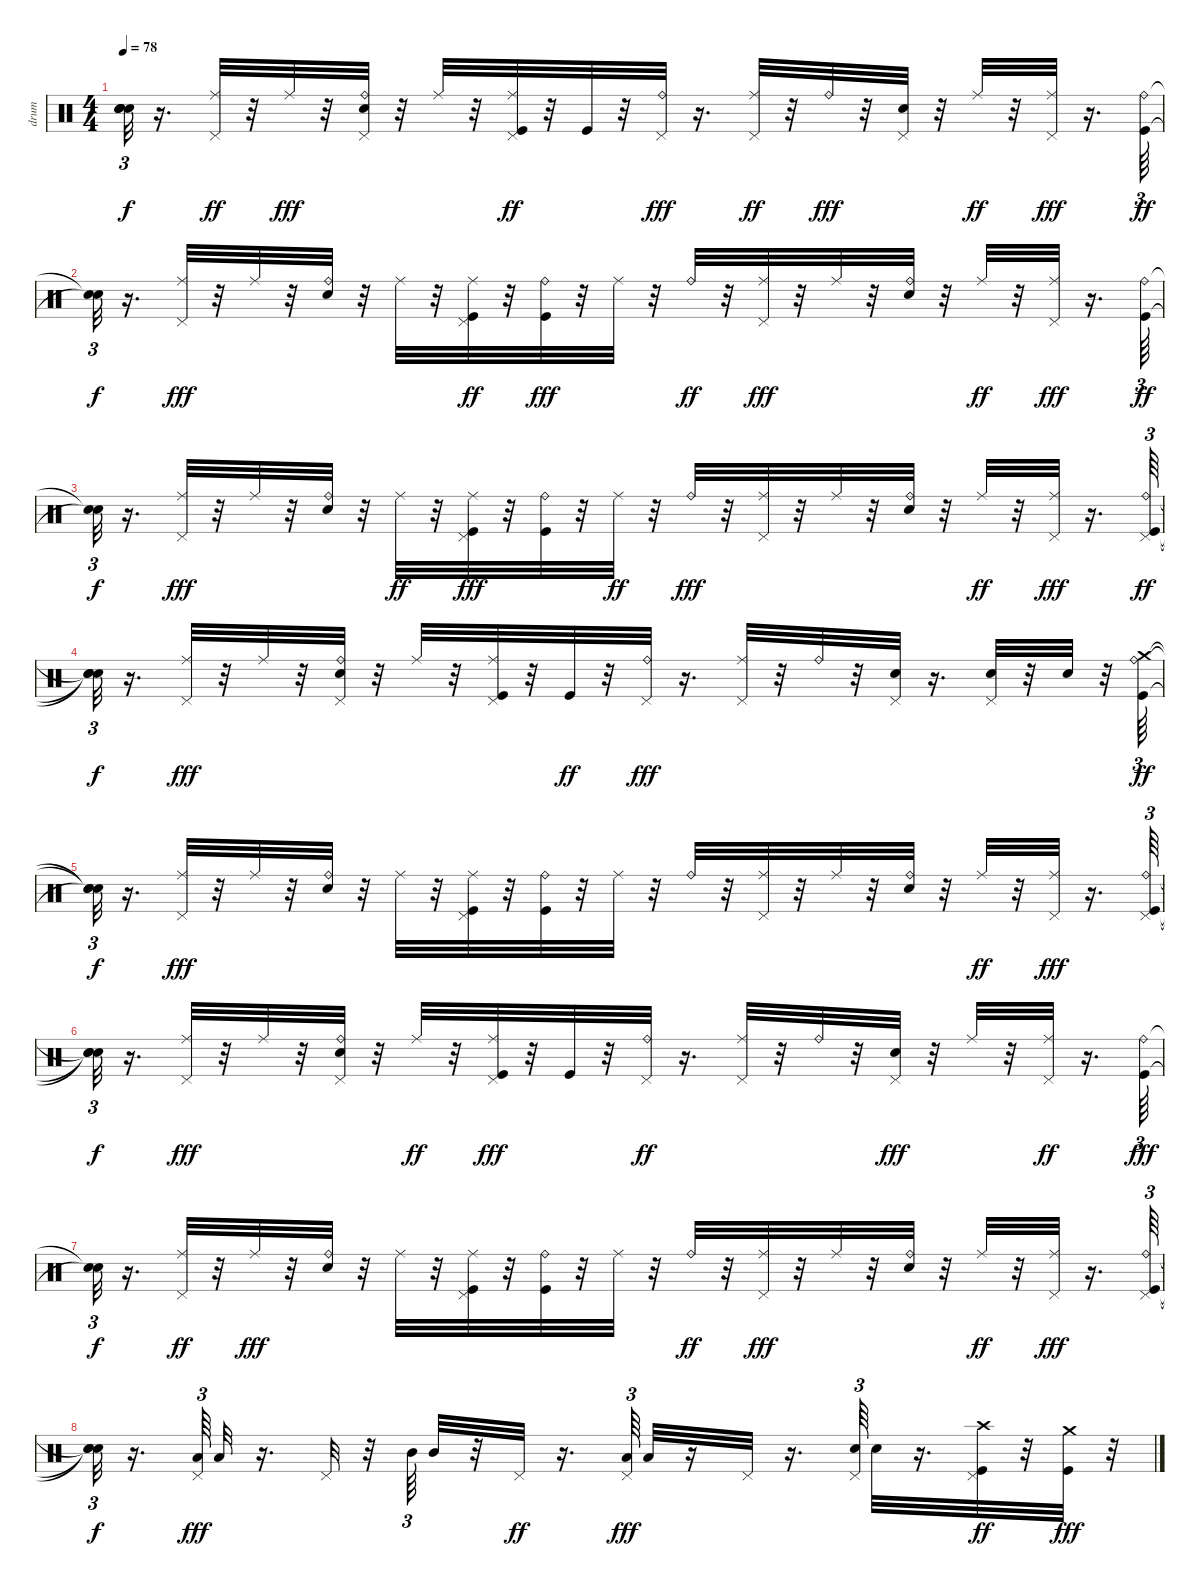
\track ("drum" "drum") {instrument percussion}
\staff {score}
\articulation defaults
\ts (4 4)
\tempo 78
\clef neutral
\ks c
("Snare (hit)"{t} "Snare (hit)"{t} "Snare (hit)"{t} "Snare (hit)"{t}).32{tu (3 2) dy f} r.16{d} ("Ride (middle)" "Pedal Hi-Hat (hit)").32{dy ff} r.32 "Ride (middle)".32{dy fff} r.32 ("Ride (bell)" "Pedal Hi-Hat (hit)" "Electric Snare (hit)").32 r.32 "Ride (middle)".32 r.32 ("Ride (middle)" "Pedal Hi-Hat (hit)" "Kick (hit)").32{dy ff} r.32 "Kick (hit)".32 r.32 ("Ride (bell)" "Pedal Hi-Hat (hit)").32{dy fff} r.16{d} ("Ride (middle)" "Pedal Hi-Hat (hit)").32{dy ff} r.32 "Ride (bell)".32{dy fff} r.32 ("Pedal Hi-Hat (hit)" "Electric Snare (hit)").32 r.32 "Ride (middle)".32{dy ff} r.32 ("Ride (middle)" "Pedal Hi-Hat (hit)").32{dy fff} r.16{d} ("Ride (bell)" "Kick (hit)").64{tu (3 2) dy ff} |
("Snare (hit)"{t} "Snare (hit)"{t}).32{tu (3 2) dy f} r.16{d} ("Ride (middle)" "Pedal Hi-Hat (hit)").32{dy fff} r.32 "Ride (middle)".32 r.32 ("Ride (bell)" "Electric Snare (hit)").32 r.32 "Ride (middle)".32 r.32 ("Ride (middle)" "Pedal Hi-Hat (hit)" "Kick (hit)").32{dy ff} r.32 ("Ride (bell)" "Kick (hit)").32{dy fff} r.32 "Ride (middle)".32 r.32 "Ride (bell)".32{dy ff} r.32 ("Ride (middle)" "Pedal Hi-Hat (hit)").32{dy fff} r.32 "Ride (middle)".32 r.32 ("Ride (bell)" "Electric Snare (hit)").32 r.32 "Ride (middle)".32{dy ff} r.32 ("Ride (middle)" "Pedal Hi-Hat (hit)").32{dy fff} r.16{d} ("Ride (bell)" "Kick (hit)").64{tu (3 2) dy ff} |
("Snare (hit)"{t} "Snare (hit)"{t}).32{tu (3 2) dy f} r.16{d} ("Ride (middle)" "Pedal Hi-Hat (hit)").32{dy fff} r.32 "Ride (middle)".32 r.32 ("Ride (bell)" "Electric Snare (hit)").32 r.32 "Ride (middle)".32{dy ff} r.32 ("Ride (middle)" "Pedal Hi-Hat (hit)" "Kick (hit)").32{dy fff} r.32 ("Ride (bell)" "Kick (hit)").32 r.32 "Ride (middle)".32{dy ff} r.32 "Ride (bell)".32{dy fff} r.32 ("Ride (middle)" "Pedal Hi-Hat (hit)").32 r.32 "Ride (middle)".32 r.32 ("Ride (bell)" "Electric Snare (hit)").32 r.32 "Ride (middle)".32{dy ff} r.32 ("Ride (middle)" "Pedal Hi-Hat (hit)").32{dy fff} r.16{d} ("Ride (bell)" "Pedal Hi-Hat (hit)" "Kick (hit)").64{tu (3 2) dy ff} |
("Snare (hit)"{t} "Snare (hit)"{t} "Snare (hit)"{t}).32{tu (3 2) dy f} r.16{d} ("Ride (middle)" "Pedal Hi-Hat (hit)").32{dy fff} r.32 "Ride (middle)".32 r.32 ("Ride (bell)" "Pedal Hi-Hat (hit)" "Electric Snare (hit)").32 r.32 "Ride (middle)".32 r.32 ("Ride (middle)" "Pedal Hi-Hat (hit)" "Kick (hit)").32 r.32 "Kick (hit)".32{dy ff} r.32 ("Ride (bell)" "Pedal Hi-Hat (hit)").32{dy fff} r.16{d} ("Ride (middle)" "Pedal Hi-Hat (hit)").32 r.32 "Ride (bell)".32 r.32 ("Pedal Hi-Hat (hit)" "Electric Snare (hit)").32 r.16{d} ("Pedal Hi-Hat (hit)" "Electric Snare (hit)").32 r.32 "Electric Snare (hit)".32 r.32 ("Ride (bell)" "Kick (hit)" "Crash medium (hit)").64{tu (3 2) dy ff} |
("Snare (hit)"{t} "Snare (hit)"{t} "Snare (hit)"{t}).32{tu (3 2) dy f} r.16{d} ("Ride (middle)" "Pedal Hi-Hat (hit)").32{dy fff} r.32 "Ride (middle)".32 r.32 ("Ride (bell)" "Electric Snare (hit)").32 r.32 "Ride (middle)".32 r.32 ("Ride (middle)" "Pedal Hi-Hat (hit)" "Kick (hit)").32 r.32 ("Ride (bell)" "Kick (hit)").32 r.32 "Ride (middle)".32 r.32 "Ride (bell)".32 r.32 ("Ride (middle)" "Pedal Hi-Hat (hit)").32 r.32 "Ride (middle)".32 r.32 ("Ride (bell)" "Electric Snare (hit)").32 r.32 "Ride (middle)".32{dy ff} r.32 ("Ride (middle)" "Pedal Hi-Hat (hit)").32{dy fff} r.16{d} ("Ride (bell)" "Pedal Hi-Hat (hit)" "Kick (hit)").64{tu (3 2)} |
("Snare (hit)"{t} "Snare (hit)"{t} "Snare (hit)"{t}).32{tu (3 2) dy f} r.16{d} ("Ride (middle)" "Pedal Hi-Hat (hit)").32{dy fff} r.32 "Ride (middle)".32 r.32 ("Ride (bell)" "Pedal Hi-Hat (hit)" "Electric Snare (hit)").32 r.32 "Ride (middle)".32{dy ff} r.32 ("Ride (middle)" "Pedal Hi-Hat (hit)" "Kick (hit)").32{dy fff} r.32 "Kick (hit)".32 r.32 ("Ride (bell)" "Pedal Hi-Hat (hit)").32{dy ff} r.16{d} ("Ride (middle)" "Pedal Hi-Hat (hit)").32 r.32 "Ride (bell)".32 r.32 ("Pedal Hi-Hat (hit)" "Electric Snare (hit)").32{dy fff} r.32 "Ride (middle)".32 r.32 ("Ride (middle)" "Pedal Hi-Hat (hit)").32{dy ff} r.16{d} ("Ride (bell)" "Kick (hit)").64{tu (3 2) dy fff} |
("Snare (hit)"{t} "Snare (hit)"{t}).32{tu (3 2) dy f} r.16{d} ("Ride (middle)" "Pedal Hi-Hat (hit)").32{dy ff} r.32 "Ride (middle)".32{dy fff} r.32 ("Ride (bell)" "Electric Snare (hit)").32 r.32 "Ride (middle)".32 r.32 ("Ride (middle)" "Pedal Hi-Hat (hit)" "Kick (hit)").32 r.32 ("Ride (bell)" "Kick (hit)").32 r.32 "Ride (middle)".32 r.32 "Ride (bell)".32{dy ff} r.32 ("Ride (middle)" "Pedal Hi-Hat (hit)").32{dy fff} r.32 "Ride (middle)".32 r.32 ("Ride (bell)" "Electric Snare (hit)").32 r.32 "Ride (middle)".32{dy ff} r.32 ("Ride (middle)" "Pedal Hi-Hat (hit)").32{dy fff} r.16{d} ("Ride (bell)" "Pedal Hi-Hat (hit)" "Kick (hit)").64{tu (3 2)} |
("Snare (hit)"{t} "Snare (hit)"{t} "Snare (hit)"{t}).32{tu (3 2) dy f} r.16{d} ("Pedal Hi-Hat (hit)" "Low Floor Tom (hit)").64{tu (3 2) dy fff} "Low Floor Tom (hit)".32 r.16{d} "Pedal Hi-Hat (hit)".32 r.32 "Mid Tom (hit)".64{tu (3 2)} "Mid Tom (hit)".32 r.32 "Pedal Hi-Hat (hit)".32{dy ff} r.16{d} ("Low Tom (hit)" "Pedal Hi-Hat (hit)").64{tu (3 2) dy fff} "Low Tom (hit)".32 r.16 "Pedal Hi-Hat (hit)".32 r.16{d} ("Pedal Hi-Hat (hit)" "Electric Snare (hit)").64{tu (3 2)} "Electric Snare (hit)".32 r.16{d} ("Pedal Hi-Hat (hit)" "Crash high (hit)" "Kick (hit)").32{dy ff} r.32 ("Crash medium (hit)" "Kick (hit)").32{dy fff} r.32
